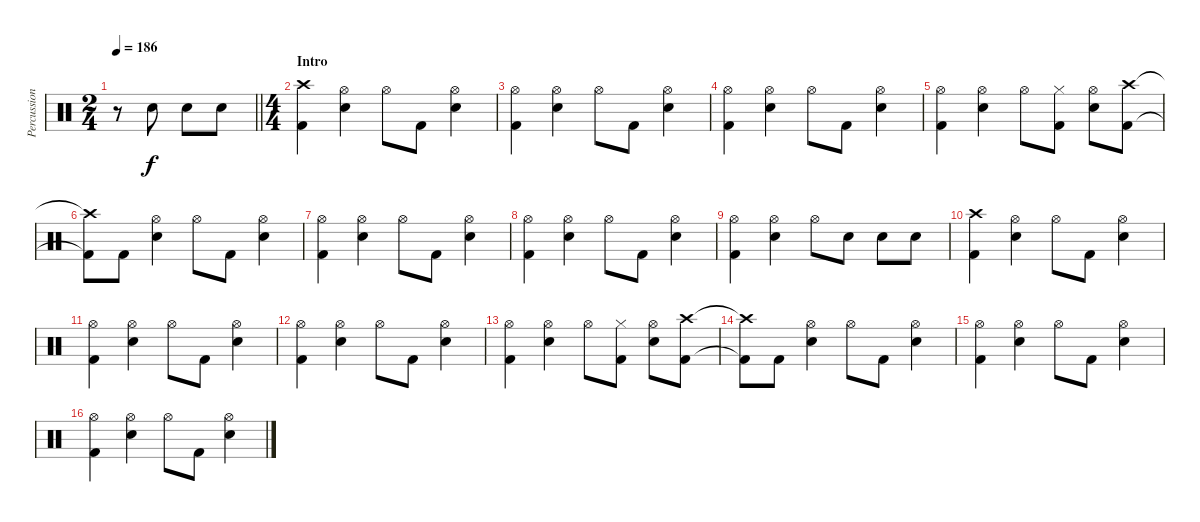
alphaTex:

\track ("Percussion" "Percussion") {instrument percussion}
\staff {score}
\articulation defaults
\ts (2 4)
\tempo 186
\clef neutral
\barLineRight lightlight
\ks c
r.8{dy f} "Snare (hit) 2".8 "Snare (hit) 2".8 "Snare (hit) 2".8 |
\ts (4 4)
\section ("" "Intro")
("Crash high (hit)" "Kick (hit) 2").4 ("Hi-Hat (open)" "Snare (hit) 2").4 "Hi-Hat (open)".8 "Kick (hit) 2".8 ("Hi-Hat (open)" "Snare (hit) 2").4 |
("Hi-Hat (open)" "Kick (hit) 2").4 ("Hi-Hat (open)" "Snare (hit) 2").4 "Hi-Hat (open)".8 "Kick (hit) 2".8 ("Hi-Hat (open)" "Snare (hit) 2").4 |
("Hi-Hat (open)" "Kick (hit) 2").4 ("Hi-Hat (open)" "Snare (hit) 2").4 "Hi-Hat (open)".8 "Kick (hit) 2".8 ("Hi-Hat (open)" "Snare (hit) 2").4 |
("Hi-Hat (open)" "Kick (hit) 2").4 ("Hi-Hat (open)" "Snare (hit) 2").4 "Hi-Hat (open)".8 ("Hi-Hat (closed)" "Kick (hit) 2").8 ("Hi-Hat (open)" "Snare (hit) 2").8 ("Crash high (hit)" "Kick (hit) 2").8 |
("Crash high (hit)"{t} "Kick (hit) 2"{t}).8 "Kick (hit) 2".8 ("Hi-Hat (open)" "Snare (hit) 2").4 "Hi-Hat (open)".8 "Kick (hit) 2".8 ("Hi-Hat (open)" "Snare (hit) 2").4 |
("Hi-Hat (open)" "Kick (hit) 2").4 ("Hi-Hat (open)" "Snare (hit) 2").4 "Hi-Hat (open)".8 "Kick (hit) 2".8 ("Hi-Hat (open)" "Snare (hit) 2").4 |
("Hi-Hat (open)" "Kick (hit) 2").4 ("Hi-Hat (open)" "Snare (hit) 2").4 "Hi-Hat (open)".8 "Kick (hit) 2".8 ("Hi-Hat (open)" "Snare (hit) 2").4 |
("Hi-Hat (open)" "Kick (hit) 2").4 ("Hi-Hat (open)" "Snare (hit) 2").4 "Hi-Hat (open)".8 "Snare (hit) 2".8 "Snare (hit) 2".8 "Snare (hit) 2".8 |
("Crash high (hit)" "Kick (hit) 2").4 ("Hi-Hat (open)" "Snare (hit) 2").4 "Hi-Hat (open)".8 "Kick (hit) 2".8 ("Hi-Hat (open)" "Snare (hit) 2").4 |
("Hi-Hat (open)" "Kick (hit) 2").4 ("Hi-Hat (open)" "Snare (hit) 2").4 "Hi-Hat (open)".8 "Kick (hit) 2".8 ("Hi-Hat (open)" "Snare (hit) 2").4 |
("Hi-Hat (open)" "Kick (hit) 2").4 ("Hi-Hat (open)" "Snare (hit) 2").4 "Hi-Hat (open)".8 "Kick (hit) 2".8 ("Hi-Hat (open)" "Snare (hit) 2").4 |
("Hi-Hat (open)" "Kick (hit) 2").4 ("Hi-Hat (open)" "Snare (hit) 2").4 "Hi-Hat (open)".8 ("Hi-Hat (closed)" "Kick (hit) 2").8 ("Hi-Hat (open)" "Snare (hit) 2").8 ("Crash high (hit)" "Kick (hit) 2").8 |
("Crash high (hit)"{t} "Kick (hit) 2"{t}).8 "Kick (hit) 2".8 ("Hi-Hat (open)" "Snare (hit) 2").4 "Hi-Hat (open)".8 "Kick (hit) 2".8 ("Hi-Hat (open)" "Snare (hit) 2").4 |
("Hi-Hat (open)" "Kick (hit) 2").4 ("Hi-Hat (open)" "Snare (hit) 2").4 "Hi-Hat (open)".8 "Kick (hit) 2".8 ("Hi-Hat (open)" "Snare (hit) 2").4 |
("Hi-Hat (open)" "Kick (hit) 2").4 ("Hi-Hat (open)" "Snare (hit) 2").4 "Hi-Hat (open)".8 "Kick (hit) 2".8 ("Hi-Hat (open)" "Snare (hit) 2").4
